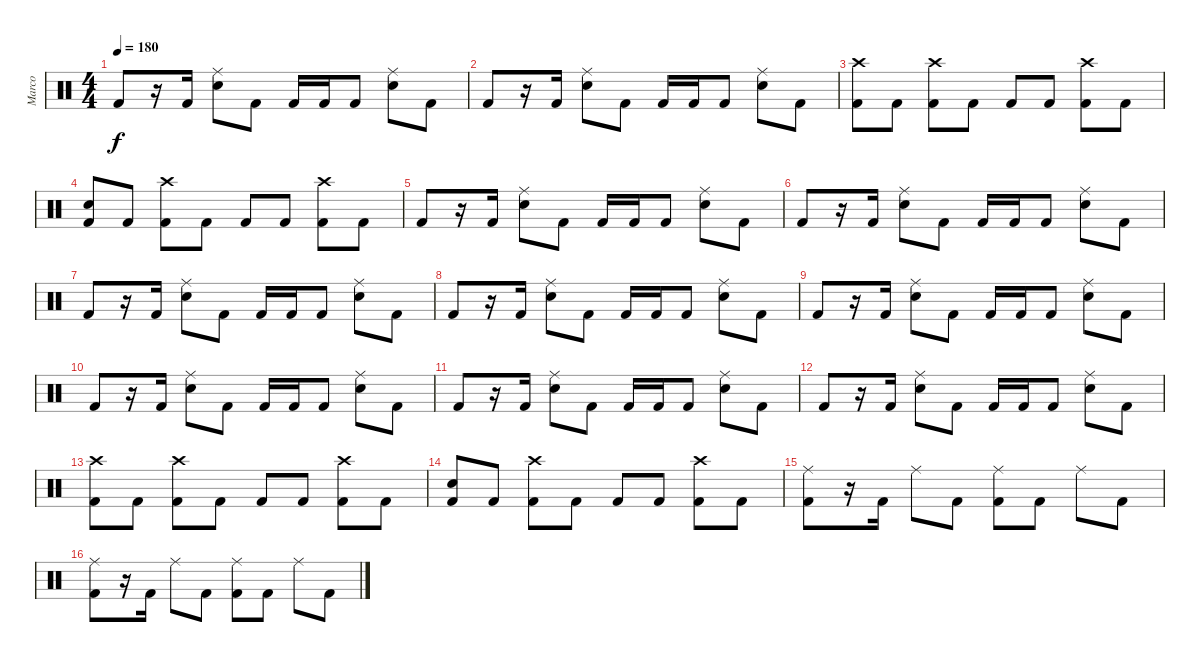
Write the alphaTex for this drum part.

\track ("Marco" "Marco") {instrument percussion}
\staff {score}
\articulation defaults
\ts (4 4)
\tempo 180
\clef neutral
\ks c "Kick (hit) 2".8{dy f}
r.16 "Kick (hit) 2".16 ("Electric Snare (hit)" "Ride (middle)").8 "Kick (hit) 2".8 "Kick (hit) 2".16 "Kick (hit) 2".16 "Kick (hit) 2".8 ("Electric Snare (hit)" "Ride (middle)").8 "Kick (hit) 2".8 |
"Kick (hit) 2".8 r.16 "Kick (hit) 2".16 ("Electric Snare (hit)" "Ride (middle)").8 "Kick (hit) 2".8 "Kick (hit) 2".16 "Kick (hit) 2".16 "Kick (hit) 2".8 ("Electric Snare (hit)" "Ride (middle)").8 "Kick (hit) 2".8 |
("Kick (hit) 2" "Crash high (hit)").8 "Kick (hit) 2".8 ("Kick (hit) 2" "Crash high (hit)").8 "Kick (hit) 2".8 "Kick (hit) 2".8 "Kick (hit) 2".8 ("Kick (hit) 2" "Crash high (hit)").8 "Kick (hit) 2".8 |
("Kick (hit) 2" "Electric Snare (hit)").8 "Kick (hit) 2".8 ("Kick (hit) 2" "Crash high (hit)").8 "Kick (hit) 2".8 "Kick (hit) 2".8 "Kick (hit) 2".8 ("Kick (hit) 2" "Crash high (hit)").8 "Kick (hit) 2".8 |
"Kick (hit) 2".8 r.16 "Kick (hit) 2".16 ("Electric Snare (hit)" "Ride (middle)").8 "Kick (hit) 2".8 "Kick (hit) 2".16 "Kick (hit) 2".16 "Kick (hit) 2".8 ("Electric Snare (hit)" "Ride (middle)").8 "Kick (hit) 2".8 |
"Kick (hit) 2".8 r.16 "Kick (hit) 2".16 ("Electric Snare (hit)" "Ride (middle)").8 "Kick (hit) 2".8 "Kick (hit) 2".16 "Kick (hit) 2".16 "Kick (hit) 2".8 ("Electric Snare (hit)" "Ride (middle)").8 "Kick (hit) 2".8 |
"Kick (hit) 2".8 r.16 "Kick (hit) 2".16 ("Electric Snare (hit)" "Ride (middle)").8 "Kick (hit) 2".8 "Kick (hit) 2".16 "Kick (hit) 2".16 "Kick (hit) 2".8 ("Electric Snare (hit)" "Ride (middle)").8 "Kick (hit) 2".8 |
"Kick (hit) 2".8 r.16 "Kick (hit) 2".16 ("Electric Snare (hit)" "Ride (middle)").8 "Kick (hit) 2".8 "Kick (hit) 2".16 "Kick (hit) 2".16 "Kick (hit) 2".8 ("Electric Snare (hit)" "Ride (middle)").8 "Kick (hit) 2".8 |
"Kick (hit) 2".8 r.16 "Kick (hit) 2".16 ("Electric Snare (hit)" "Ride (middle)").8 "Kick (hit) 2".8 "Kick (hit) 2".16 "Kick (hit) 2".16 "Kick (hit) 2".8 ("Electric Snare (hit)" "Ride (middle)").8 "Kick (hit) 2".8 |
"Kick (hit) 2".8 r.16 "Kick (hit) 2".16 ("Electric Snare (hit)" "Ride (middle)").8 "Kick (hit) 2".8 "Kick (hit) 2".16 "Kick (hit) 2".16 "Kick (hit) 2".8 ("Electric Snare (hit)" "Ride (middle)").8 "Kick (hit) 2".8 |
"Kick (hit) 2".8 r.16 "Kick (hit) 2".16 ("Electric Snare (hit)" "Ride (middle)").8 "Kick (hit) 2".8 "Kick (hit) 2".16 "Kick (hit) 2".16 "Kick (hit) 2".8 ("Electric Snare (hit)" "Ride (middle)").8 "Kick (hit) 2".8 |
"Kick (hit) 2".8 r.16 "Kick (hit) 2".16 ("Electric Snare (hit)" "Ride (middle)").8 "Kick (hit) 2".8 "Kick (hit) 2".16 "Kick (hit) 2".16 "Kick (hit) 2".8 ("Electric Snare (hit)" "Ride (middle)").8 "Kick (hit) 2".8 |
("Kick (hit) 2" "Crash high (hit)").8 "Kick (hit) 2".8 ("Kick (hit) 2" "Crash high (hit)").8 "Kick (hit) 2".8 "Kick (hit) 2".8 "Kick (hit) 2".8 ("Kick (hit) 2" "Crash high (hit)").8 "Kick (hit) 2".8 |
("Kick (hit) 2" "Electric Snare (hit)").8 "Kick (hit) 2".8 ("Kick (hit) 2" "Crash high (hit)").8 "Kick (hit) 2".8 "Kick (hit) 2".8 "Kick (hit) 2".8 ("Kick (hit) 2" "Crash high (hit)").8 "Kick (hit) 2".8 |
("Kick (hit) 2" "Ride (middle)").8 r.16 "Kick (hit) 2".16 "Ride (middle)".8 "Kick (hit) 2".8 ("Kick (hit) 2" "Ride (middle)").8 "Kick (hit) 2".8 "Ride (middle)".8 "Kick (hit) 2".8 |
("Kick (hit) 2" "Ride (middle)").8 r.16 "Kick (hit) 2".16 "Ride (middle)".8 "Kick (hit) 2".8 ("Kick (hit) 2" "Ride (middle)").8 "Kick (hit) 2".8 "Ride (middle)".8 "Kick (hit) 2".8
